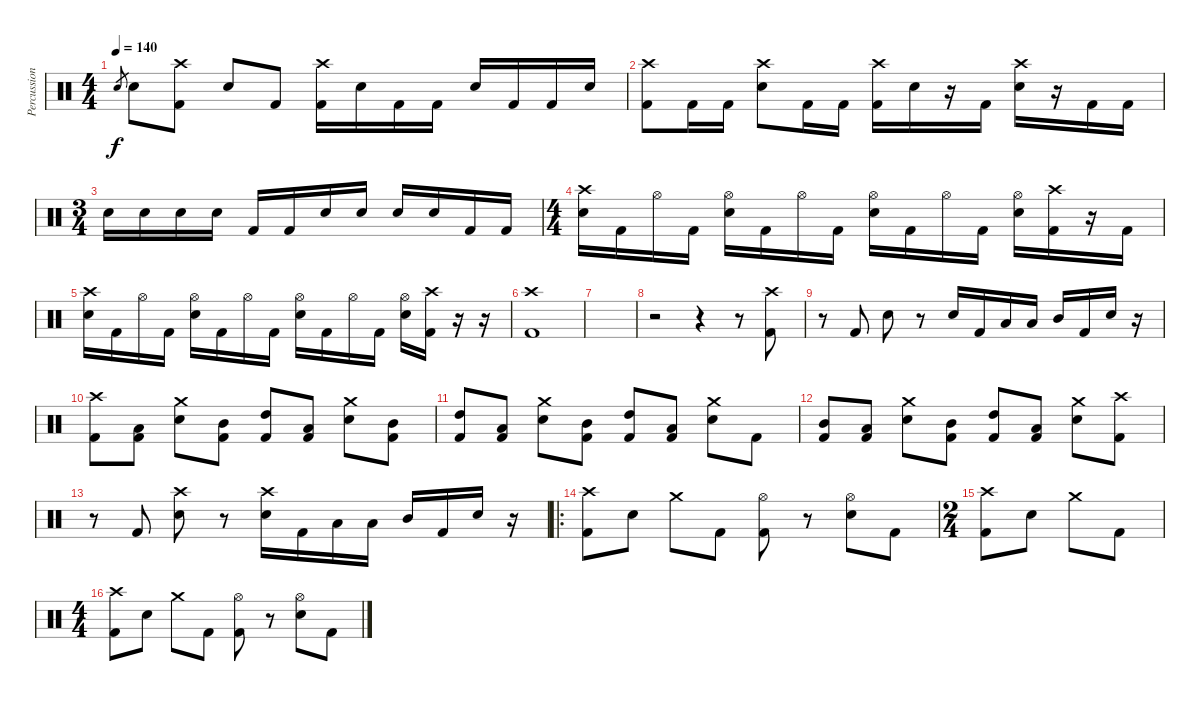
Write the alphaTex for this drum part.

\track ("Percussions" "Percussion") {instrument percussion}
\staff {score}
\articulation defaults
\ts (4 4)
\tempo 140
\clef neutral
\ks c "Electric Snare (hit)".8{gr dy f} "Electric Snare (hit)".8
("Kick (hit) 2" "Crash high (hit)").8 "Electric Snare (hit)".8 "Kick (hit) 2".8 ("Kick (hit) 2" "Crash high (hit)").16 "Electric Snare (hit)".16 "Kick (hit) 2".16 "Kick (hit) 2".16 "Electric Snare (hit)".16 "Kick (hit) 2".16 "Kick (hit) 2".16 "Electric Snare (hit)".16 |
("Kick (hit) 2" "Crash high (hit)").8 "Kick (hit) 2".16 "Kick (hit) 2".16 ("Electric Snare (hit)" "Crash high (hit)").8 "Kick (hit) 2".16 "Kick (hit) 2".16 ("Kick (hit) 2" "Crash high (hit)").16 "Electric Snare (hit)".16 r.16 "Kick (hit) 2".16 ("Electric Snare (hit)" "Crash high (hit)").16 r.16 "Kick (hit) 2".16 "Kick (hit) 2".16 |
\ts (3 4)
"Electric Snare (hit)".16 "Electric Snare (hit)".16 "Electric Snare (hit)".16 "Electric Snare (hit)".16 "Kick (hit) 2".16 "Kick (hit) 2".16 "Electric Snare (hit)".16 "Electric Snare (hit)".16 "Electric Snare (hit)".16 "Electric Snare (hit)".16 "Kick (hit) 2".16 "Kick (hit) 2".16 |
\ts (4 4)
("Electric Snare (hit)" "Crash high (hit)").16 "Kick (hit) 2".16 "Hi-Hat (open)".16 "Kick (hit) 2".16 ("Electric Snare (hit)" "Hi-Hat (open)").16 "Kick (hit) 2".16 "Hi-Hat (open)".16 "Kick (hit) 2".16 ("Electric Snare (hit)" "Hi-Hat (open)").16 "Kick (hit) 2".16 "Hi-Hat (open)".16 "Kick (hit) 2".16 ("Electric Snare (hit)" "Hi-Hat (open)").16 ("Kick (hit) 2" "Crash high (hit)").16 r.16 "Kick (hit) 2".16 |
("Electric Snare (hit)" "Crash high (hit)").16 "Kick (hit) 2".16 "Hi-Hat (open)".16 "Kick (hit) 2".16 ("Electric Snare (hit)" "Hi-Hat (open)").16 "Kick (hit) 2".16 "Hi-Hat (open)".16 "Kick (hit) 2".16 ("Electric Snare (hit)" "Hi-Hat (open)").16 "Kick (hit) 2".16 "Hi-Hat (open)".16 "Kick (hit) 2".16 ("Electric Snare (hit)" "Hi-Hat (open)").16 ("Kick (hit) 2" "Crash high (hit)").16 r.16 r.16 |
("Kick (hit) 2" "Crash high (hit)").1 |
|
r.2 r.4 r.8 ("Kick (hit) 2" "Crash high (hit)").8 |
r.8 "Kick (hit) 2".8 "Electric Snare (hit)".8 r.8 "Electric Snare (hit)".16 "Kick (hit) 2".16 "Low Floor Tom (hit)".16 "Low Tom (hit)".16 "Mid Tom (hit)".16 "Kick (hit) 2".16 "Electric Snare (hit)".16 r.16 |
("Kick (hit) 2" "Crash high (hit)").8 ("Kick (hit) 2" "Low Floor Tom (hit)").8 ("Electric Snare (hit)" "Crash medium (hit)").8 ("Kick (hit) 2" "Mid Tom (hit)").8 ("Kick (hit) 2" "High Tom (hit)").8 ("Kick (hit) 2" "Low Floor Tom (hit)").8 ("Electric Snare (hit)" "Crash medium (hit)").8 ("Kick (hit) 2" "Mid Tom (hit)").8 |
("Kick (hit) 2" "High Tom (hit)").8 ("Kick (hit) 2" "Low Floor Tom (hit)").8 ("Electric Snare (hit)" "Crash medium (hit)").8 ("Kick (hit) 2" "Mid Tom (hit)").8 ("Kick (hit) 2" "High Tom (hit)").8 ("Kick (hit) 2" "Low Floor Tom (hit)").8 ("Electric Snare (hit)" "Crash medium (hit)").8 "Kick (hit) 2".8 |
("Kick (hit) 2" "Mid Tom (hit)").8 ("Kick (hit) 2" "Low Floor Tom (hit)").8 ("Electric Snare (hit)" "Crash medium (hit)").8 ("Kick (hit) 2" "Mid Tom (hit)").8 ("Kick (hit) 2" "High Tom (hit)").8 ("Kick (hit) 2" "Low Floor Tom (hit)").8 ("Electric Snare (hit)" "Crash medium (hit)").8 ("Kick (hit) 2" "Crash high (hit)").8 |
r.8 "Kick (hit) 2".8 ("Electric Snare (hit)" "Crash high (hit)").8 r.8 ("Electric Snare (hit)" "Crash high (hit)").16 "Kick (hit) 2".16 "Low Floor Tom (hit)".16 "Low Tom (hit)".16 "Mid Tom (hit)".16 "Kick (hit) 2".16 "Electric Snare (hit)".16 r.16 |
\ro
("Kick (hit) 2" "Crash high (hit)").8 "Electric Snare (hit)".8 "Crash medium (hit)".8 "Kick (hit) 2".8 ("Kick (hit) 2" "Hi-Hat (open)").8 r.8 ("Electric Snare (hit)" "Hi-Hat (open)").8 "Kick (hit) 2".8 |
\ts (2 4)
("Kick (hit) 2" "Crash high (hit)").8 "Electric Snare (hit)".8 "Crash medium (hit)".8 "Kick (hit) 2".8 |
\ts (4 4)
("Kick (hit) 2" "Crash high (hit)").8 "Electric Snare (hit)".8 "Crash medium (hit)".8 "Kick (hit) 2".8 ("Kick (hit) 2" "Hi-Hat (open)").8 r.8 ("Electric Snare (hit)" "Hi-Hat (open)").8 "Kick (hit) 2".8
